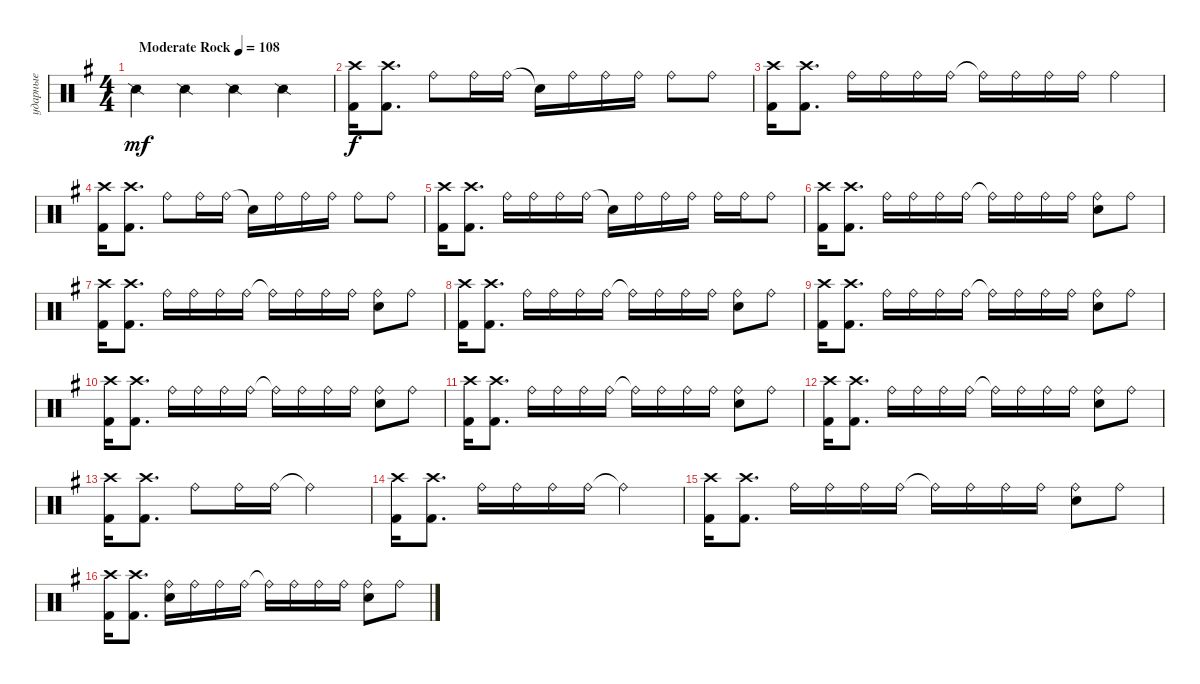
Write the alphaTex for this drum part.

\track ("ударные" "ударные") {instrument percussion}
\staff {score}
\articulation defaults
\ts (4 4)
\tempo (108 "Moderate Rock")
\clef neutral
\ks eminor "Snare (side stick) 2".4{dy mf} "Snare (side stick) 2".4 "Snare (side stick) 2".4 "Snare (side stick) 2".4
|
("Crash high (hit)" "Kick (hit) 2").16{dy f} ("Crash high (hit)" "Kick (hit) 2").8{d} "Ride (bell)".8 "Ride (bell)".16 "Ride (bell)".16 "Snare (hit)"{t}.16 "Ride (bell)".16 "Ride (bell)".16 "Ride (bell)".16 "Ride (bell)".8 "Ride (bell)".8 |
("Crash high (hit)" "Kick (hit) 2").16 ("Crash high (hit)" "Kick (hit) 2").8{d} "Ride (bell)".16 "Ride (bell)".16 "Ride (bell)".16 "Ride (bell)".16 "Ride (bell)"{t}.16 "Ride (bell)".16 "Ride (bell)".16 "Ride (bell)".16 "Ride (bell)".4 |
("Crash high (hit)" "Kick (hit) 2").16 ("Crash high (hit)" "Kick (hit) 2").8{d} "Ride (bell)".8 "Ride (bell)".16 "Ride (bell)".16 "Snare (hit)"{t}.16 "Ride (bell)".16 "Ride (bell)".16 "Ride (bell)".16 "Ride (bell)".8 "Ride (bell)".8 |
("Crash high (hit)" "Kick (hit) 2").16 ("Crash high (hit)" "Kick (hit) 2").8{d} "Ride (bell)".16 "Ride (bell)".16 "Ride (bell)".16 "Ride (bell)".16 "Snare (hit)"{t}.16 "Ride (bell)".16 "Ride (bell)".16 "Ride (bell)".16 "Ride (bell)".16 "Ride (bell)".16 "Ride (bell)".8 |
("Crash high (hit)" "Kick (hit) 2").16 ("Crash high (hit)" "Kick (hit) 2").8{d} "Ride (bell)".16 "Ride (bell)".16 "Ride (bell)".16 "Ride (bell)".16 "Ride (bell)"{t}.16 "Ride (bell)".16 "Ride (bell)".16 "Ride (bell)".16 ("Ride (bell)" "Snare (hit) 2").8 "Ride (bell)".8 |
("Crash high (hit)" "Kick (hit) 2").16 ("Crash high (hit)" "Kick (hit) 2").8{d} "Ride (bell)".16 "Ride (bell)".16 "Ride (bell)".16 "Ride (bell)".16 "Ride (bell)"{t}.16 "Ride (bell)".16 "Ride (bell)".16 "Ride (bell)".16 ("Ride (bell)" "Snare (hit) 2").8 "Ride (bell)".8 |
("Crash high (hit)" "Kick (hit) 2").16 ("Crash high (hit)" "Kick (hit) 2").8{d} "Ride (bell)".16 "Ride (bell)".16 "Ride (bell)".16 "Ride (bell)".16 "Ride (bell)"{t}.16 "Ride (bell)".16 "Ride (bell)".16 "Ride (bell)".16 ("Ride (bell)" "Snare (hit) 2").8 "Ride (bell)".8 |
("Crash high (hit)" "Kick (hit) 2").16 ("Crash high (hit)" "Kick (hit) 2").8{d} "Ride (bell)".16 "Ride (bell)".16 "Ride (bell)".16 "Ride (bell)".16 "Ride (bell)"{t}.16 "Ride (bell)".16 "Ride (bell)".16 "Ride (bell)".16 ("Ride (bell)" "Snare (hit) 2").8 "Ride (bell)".8 |
("Crash high (hit)" "Kick (hit) 2").16 ("Crash high (hit)" "Kick (hit) 2").8{d} "Ride (bell)".16 "Ride (bell)".16 "Ride (bell)".16 "Ride (bell)".16 "Ride (bell)"{t}.16 "Ride (bell)".16 "Ride (bell)".16 "Ride (bell)".16 ("Ride (bell)" "Snare (hit) 2").8 "Ride (bell)".8 |
("Crash high (hit)" "Kick (hit) 2").16 ("Crash high (hit)" "Kick (hit) 2").8{d} "Ride (bell)".16 "Ride (bell)".16 "Ride (bell)".16 "Ride (bell)".16 "Ride (bell)"{t}.16 "Ride (bell)".16 "Ride (bell)".16 "Ride (bell)".16 ("Ride (bell)" "Snare (hit) 2").8 "Ride (bell)".8 |
("Crash high (hit)" "Kick (hit) 2").16 ("Crash high (hit)" "Kick (hit) 2").8{d} "Ride (bell)".16 "Ride (bell)".16 "Ride (bell)".16 "Ride (bell)".16 "Ride (bell)"{t}.16 "Ride (bell)".16 "Ride (bell)".16 "Ride (bell)".16 ("Ride (bell)" "Snare (hit) 2").8 "Ride (bell)".8 |
("Crash high (hit)" "Kick (hit) 2").16 ("Crash high (hit)" "Kick (hit) 2").8{d} "Ride (bell)".8 "Ride (bell)".16 "Ride (bell)".16 "Ride (bell)"{t}.2 |
("Crash high (hit)" "Kick (hit) 2").16 ("Crash high (hit)" "Kick (hit) 2").8{d} "Ride (bell)".16 "Ride (bell)".16 "Ride (bell)".16 "Ride (bell)".16 "Ride (bell)"{t}.2 |
("Crash high (hit)" "Kick (hit) 2").16 ("Crash high (hit)" "Kick (hit) 2").8{d} "Ride (bell)".16 "Ride (bell)".16 "Ride (bell)".16 "Ride (bell)".16 "Ride (bell)"{t}.16 "Ride (bell)".16 "Ride (bell)".16 "Ride (bell)".16 ("Ride (bell)" "Snare (hit) 2").8 "Ride (bell)".8 |
("Crash high (hit)" "Kick (hit) 2").16 ("Crash high (hit)" "Kick (hit) 2").8{d} ("Ride (bell)" "Snare (hit) 2").16 "Ride (bell)".16 "Ride (bell)".16 "Ride (bell)".16 "Ride (bell)"{t}.16 "Ride (bell)".16 "Ride (bell)".16 "Ride (bell)".16 ("Ride (bell)" "Snare (hit) 2").8 "Ride (bell)".8
